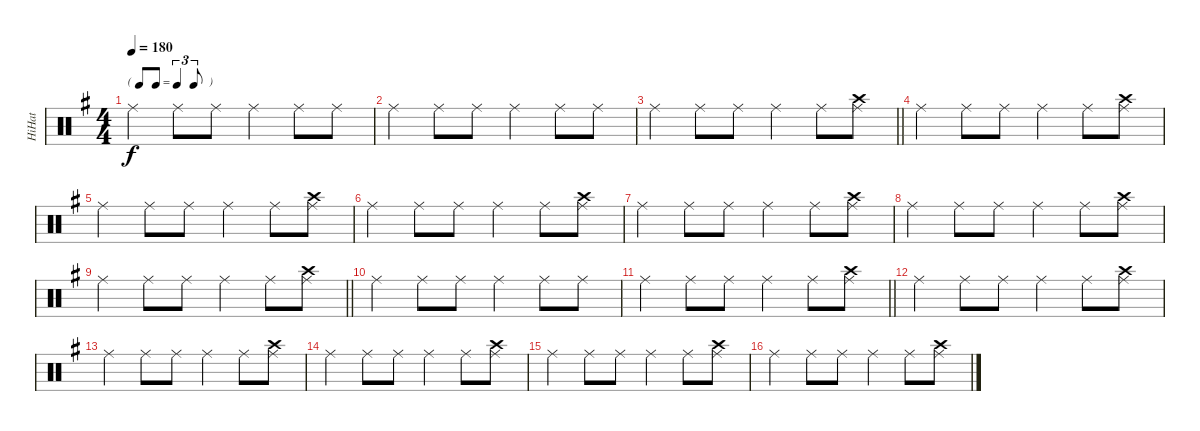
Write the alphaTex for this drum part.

\track ("HiHat" "HiHat") {instrument percussion}
\staff {score}
\articulation defaults
\ts (4 4)
\tf triplet8th
\tempo 180
\clef neutral
\ks eminor "Ride (middle)".4{dy f} "Ride (middle)".8 "Ride (middle)".8 "Ride (middle)".4 "Ride (middle)".8 "Ride (middle)".8
|
"Ride (middle)".4 "Ride (middle)".8 "Ride (middle)".8 "Ride (middle)".4 "Ride (middle)".8 "Ride (middle)".8 |
\barLineRight lightlight "Ride (middle)".4 "Ride (middle)".8 "Ride (middle)".8 "Ride (middle)".4 "Ride (middle)".8
("Crash high (hit)" "Ride (middle)").8 |
"Ride (middle)".4 "Ride (middle)".8 "Ride (middle)".8 "Ride (middle)".4 "Ride (middle)".8 ("Crash high (hit)" "Ride (middle)").8 |
"Ride (middle)".4 "Ride (middle)".8 "Ride (middle)".8 "Ride (middle)".4 "Ride (middle)".8 ("Crash high (hit)" "Ride (middle)").8 |
"Ride (middle)".4 "Ride (middle)".8 "Ride (middle)".8 "Ride (middle)".4 "Ride (middle)".8 ("Crash high (hit)" "Ride (middle)").8 |
"Ride (middle)".4 "Ride (middle)".8 "Ride (middle)".8 "Ride (middle)".4 "Ride (middle)".8 ("Crash high (hit)" "Ride (middle)").8 |
"Ride (middle)".4 "Ride (middle)".8 "Ride (middle)".8 "Ride (middle)".4 "Ride (middle)".8 ("Crash high (hit)" "Ride (middle)").8 |
\barLineRight lightlight "Ride (middle)".4 "Ride (middle)".8 "Ride (middle)".8 "Ride (middle)".4 "Ride (middle)".8
("Crash high (hit)" "Ride (middle)").8 |
"Ride (middle)".4 "Ride (middle)".8 "Ride (middle)".8 "Ride (middle)".4 "Ride (middle)".8 "Ride (middle)".8 |
\barLineRight lightlight "Ride (middle)".4 "Ride (middle)".8 "Ride (middle)".8 "Ride (middle)".4 "Ride (middle)".8
("Crash high (hit)" "Ride (middle)").8 |
"Ride (middle)".4 "Ride (middle)".8 "Ride (middle)".8 "Ride (middle)".4 "Ride (middle)".8 ("Crash high (hit)" "Ride (middle)").8 |
"Ride (middle)".4 "Ride (middle)".8 "Ride (middle)".8 "Ride (middle)".4 "Ride (middle)".8 ("Crash high (hit)" "Ride (middle)").8 |
"Ride (middle)".4 "Ride (middle)".8 "Ride (middle)".8 "Ride (middle)".4 "Ride (middle)".8 ("Crash high (hit)" "Ride (middle)").8 |
"Ride (middle)".4 "Ride (middle)".8 "Ride (middle)".8 "Ride (middle)".4 "Ride (middle)".8 ("Crash high (hit)" "Ride (middle)").8 |
"Ride (middle)".4 "Ride (middle)".8 "Ride (middle)".8 "Ride (middle)".4 "Ride (middle)".8 ("Crash high (hit)" "Ride (middle)").8
